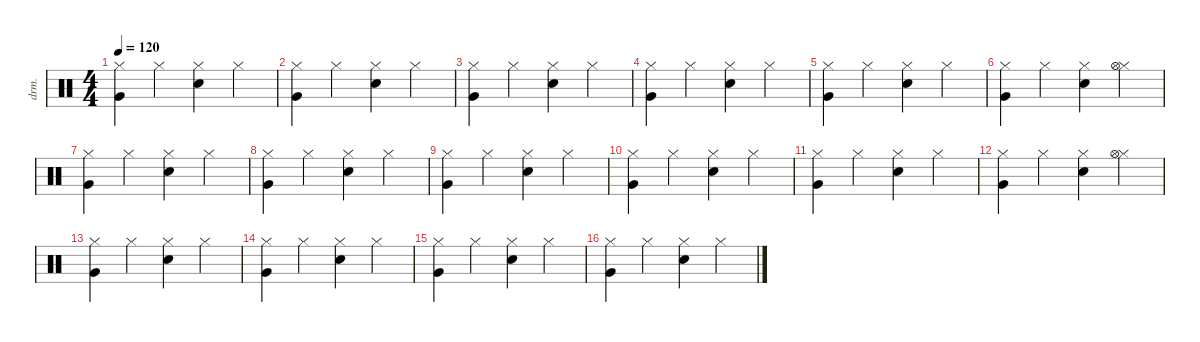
\defaultSystemsLayout 4
\hideDynamics
\bracketExtendMode nobrackets
\otherSystemsTrackNameOrientation horizontal
\track ("Track 2" "drm.") {defaultSystemsLayout 4 instrument percussion}
\staff {score}
\articulation defaults
\ts (4 4)
\beaming (8 2 2 2 2)
\tempo 120
\clef neutral
\ks c
("Hi-Hat (closed)" "Very Low Tom (hit)").4{dy f beam Down} "Hi-Hat (closed)".4{beam Down} ("Hi-Hat (closed)" "Snare (hit) 2").4{beam Down} "Hi-Hat (closed)".4{beam Down} |
("Hi-Hat (closed)" "Very Low Tom (hit)").4{beam Down} "Hi-Hat (closed)".4{beam Down} ("Hi-Hat (closed)" "Snare (hit) 2").4{beam Down} "Hi-Hat (closed)".4{beam Down} |
("Hi-Hat (closed)" "Very Low Tom (hit)").4{beam Down} "Hi-Hat (closed)".4{beam Down} ("Hi-Hat (closed)" "Snare (hit) 2").4{beam Down} "Hi-Hat (closed)".4{beam Down} |
("Hi-Hat (closed)" "Very Low Tom (hit)").4{beam Down} "Hi-Hat (closed)".4{beam Down} ("Hi-Hat (closed)" "Snare (hit) 2").4{beam Down} "Hi-Hat (closed)".4{beam Down} |
("Hi-Hat (closed)" "Very Low Tom (hit)").4{beam Down} "Hi-Hat (closed)".4{beam Down} ("Hi-Hat (closed)" "Snare (hit) 2").4{beam Down} "Hi-Hat (closed)".4{beam Down} |
("Hi-Hat (closed)" "Very Low Tom (hit)").4{beam Down} "Hi-Hat (closed)".4{beam Down} ("Hi-Hat (closed)" "Snare (hit) 2").4{beam Down} ("Hi-Hat (closed)" "Hi-Hat (open)").4{beam Down} |
("Hi-Hat (closed)" "Very Low Tom (hit)").4{beam Down} "Hi-Hat (closed)".4{beam Down} ("Hi-Hat (closed)" "Snare (hit) 2").4{beam Down} "Hi-Hat (closed)".4{beam Down} |
("Hi-Hat (closed)" "Very Low Tom (hit)").4{beam Down} "Hi-Hat (closed)".4{beam Down} ("Hi-Hat (closed)" "Snare (hit) 2").4{beam Down} "Hi-Hat (closed)".4{beam Down} |
("Hi-Hat (closed)" "Very Low Tom (hit)").4{beam Down} "Hi-Hat (closed)".4{beam Down} ("Hi-Hat (closed)" "Snare (hit) 2").4{beam Down} "Hi-Hat (closed)".4{beam Down} |
("Hi-Hat (closed)" "Very Low Tom (hit)").4{beam Down} "Hi-Hat (closed)".4{beam Down} ("Hi-Hat (closed)" "Snare (hit) 2").4{beam Down} "Hi-Hat (closed)".4{beam Down} |
("Hi-Hat (closed)" "Very Low Tom (hit)").4{beam Down} "Hi-Hat (closed)".4{beam Down} ("Hi-Hat (closed)" "Snare (hit) 2").4{beam Down} "Hi-Hat (closed)".4{beam Down} |
("Hi-Hat (closed)" "Very Low Tom (hit)").4{beam Down} "Hi-Hat (closed)".4{beam Down} ("Hi-Hat (closed)" "Snare (hit) 2").4{beam Down} ("Hi-Hat (closed)" "Hi-Hat (open)").4{beam Down} |
("Hi-Hat (closed)" "Very Low Tom (hit)").4{beam Down} "Hi-Hat (closed)".4{beam Down} ("Hi-Hat (closed)" "Snare (hit) 2").4{beam Down} "Hi-Hat (closed)".4{beam Down} |
("Hi-Hat (closed)" "Very Low Tom (hit)").4{beam Down} "Hi-Hat (closed)".4{beam Down} ("Hi-Hat (closed)" "Snare (hit) 2").4{beam Down} "Hi-Hat (closed)".4{beam Down} |
("Hi-Hat (closed)" "Very Low Tom (hit)").4{beam Down} "Hi-Hat (closed)".4{beam Down} ("Hi-Hat (closed)" "Snare (hit) 2").4{beam Down} "Hi-Hat (closed)".4{beam Down} |
("Hi-Hat (closed)" "Very Low Tom (hit)").4{beam Down} "Hi-Hat (closed)".4{beam Down} ("Hi-Hat (closed)" "Snare (hit) 2").4{beam Down} "Hi-Hat (closed)".4{beam Down}
